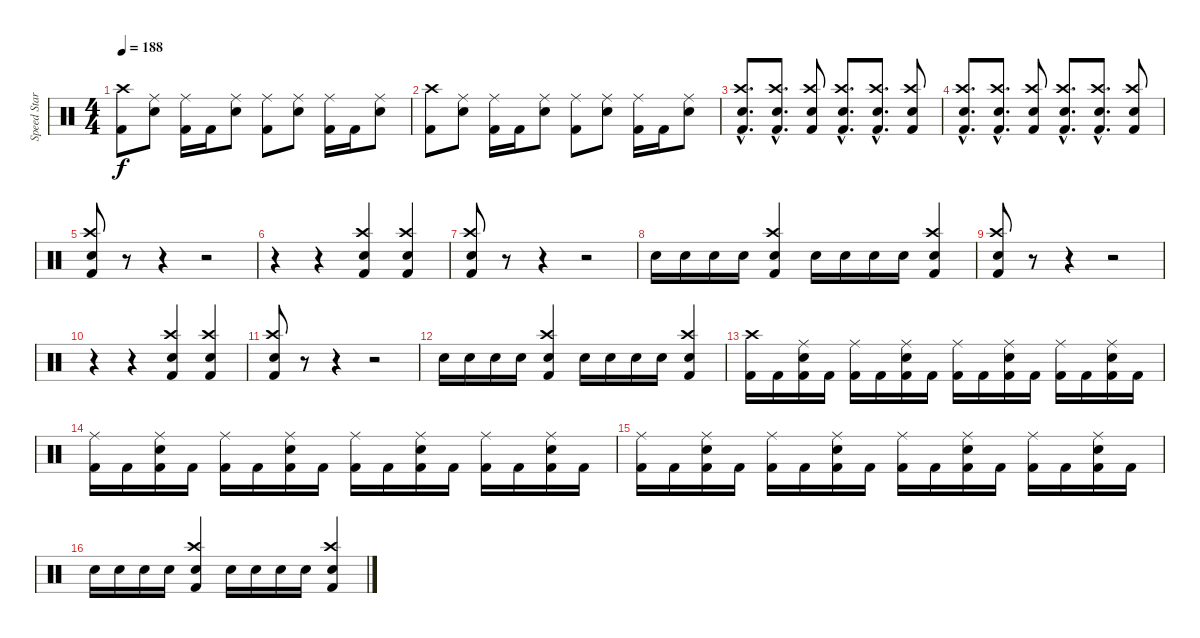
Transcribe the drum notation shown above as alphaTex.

\track ("Speed Star Sypan Joe" "Speed Star") {instrument percussion}
\staff {score}
\articulation defaults
\ts (4 4)
\tempo 188
\clef neutral
\ks c
("Kick (hit) 2" "Crash high (hit)").8{dy f} ("Electric Snare (hit)" "Ride (middle)").8 ("Kick (hit) 2" "Ride (middle)").16 "Kick (hit) 2".16 ("Electric Snare (hit)" "Ride (middle)").8 ("Kick (hit) 2" "Ride (middle)").8 ("Electric Snare (hit)" "Ride (middle)").8 ("Kick (hit) 2" "Ride (middle)").16 "Kick (hit) 2".16 ("Electric Snare (hit)" "Ride (middle)").8 |
("Kick (hit) 2" "Crash high (hit)").8 ("Electric Snare (hit)" "Ride (middle)").8 ("Kick (hit) 2" "Ride (middle)").16 "Kick (hit) 2".16 ("Electric Snare (hit)" "Ride (middle)").8 ("Kick (hit) 2" "Ride (middle)").8 ("Electric Snare (hit)" "Ride (middle)").8 ("Kick (hit) 2" "Ride (middle)").16 "Kick (hit) 2".16 ("Electric Snare (hit)" "Ride (middle)").8 |
("Kick (hit) 2"{hac} "Electric Snare (hit)"{hac} "Crash high (hit)"{hac}).8{d} ("Kick (hit) 2"{hac} "Electric Snare (hit)"{hac} "Crash high (hit)"{hac}).8{d} ("Kick (hit) 2" "Electric Snare (hit)" "Crash high (hit)").8 ("Kick (hit) 2"{hac} "Electric Snare (hit)"{hac} "Crash high (hit)"{hac}).8{d} ("Kick (hit) 2"{hac} "Electric Snare (hit)"{hac} "Crash high (hit)"{hac}).8{d} ("Kick (hit) 2" "Electric Snare (hit)" "Crash high (hit)").8 |
("Kick (hit) 2"{hac} "Electric Snare (hit)"{hac} "Crash high (hit)"{hac}).8{d} ("Kick (hit) 2"{hac} "Electric Snare (hit)"{hac} "Crash high (hit)"{hac}).8{d} ("Kick (hit) 2" "Electric Snare (hit)" "Crash high (hit)").8 ("Kick (hit) 2"{hac} "Electric Snare (hit)"{hac} "Crash high (hit)"{hac}).8{d} ("Kick (hit) 2"{hac} "Electric Snare (hit)"{hac} "Crash high (hit)"{hac}).8{d} ("Kick (hit) 2" "Electric Snare (hit)" "Crash high (hit)").8 |
("Electric Snare (hit)" "Kick (hit) 2" "Crash high (hit)").8 r.8 r.4 r.2 |
r.4 r.4 ("Kick (hit) 2" "Electric Snare (hit)" "Crash high (hit)").4 ("Electric Snare (hit)" "Kick (hit) 2" "Crash high (hit)").4 |
("Electric Snare (hit)" "Kick (hit) 2" "Crash high (hit)").8 r.8 r.4 r.2 |
"Electric Snare (hit)".16 "Electric Snare (hit)".16 "Electric Snare (hit)".16 "Electric Snare (hit)".16 ("Electric Snare (hit)" "Kick (hit) 2" "Crash high (hit)").4 "Electric Snare (hit)".16 "Electric Snare (hit)".16 "Electric Snare (hit)".16 "Electric Snare (hit)".16 ("Electric Snare (hit)" "Kick (hit) 2" "Crash high (hit)").4 |
("Electric Snare (hit)" "Kick (hit) 2" "Crash high (hit)").8 r.8 r.4 r.2 |
r.4 r.4 ("Kick (hit) 2" "Electric Snare (hit)" "Crash high (hit)").4 ("Electric Snare (hit)" "Kick (hit) 2" "Crash high (hit)").4 |
("Electric Snare (hit)" "Kick (hit) 2" "Crash high (hit)").8 r.8 r.4 r.2 |
"Electric Snare (hit)".16 "Electric Snare (hit)".16 "Electric Snare (hit)".16 "Electric Snare (hit)".16 ("Electric Snare (hit)" "Kick (hit) 2" "Crash high (hit)").4 "Electric Snare (hit)".16 "Electric Snare (hit)".16 "Electric Snare (hit)".16 "Electric Snare (hit)".16 ("Electric Snare (hit)" "Kick (hit) 2" "Crash high (hit)").4 |
("Kick (hit) 2" "Crash high (hit)").16 "Kick (hit) 2".16 ("Kick (hit) 2" "Electric Snare (hit)" "Ride (middle)").16 "Kick (hit) 2".16 ("Kick (hit) 2" "Ride (middle)").16 "Kick (hit) 2".16 ("Kick (hit) 2" "Electric Snare (hit)" "Ride (middle)").16 "Kick (hit) 2".16 ("Kick (hit) 2" "Ride (middle)").16 "Kick (hit) 2".16 ("Kick (hit) 2" "Electric Snare (hit)" "Ride (middle)").16 "Kick (hit) 2".16 ("Kick (hit) 2" "Ride (middle)").16 "Kick (hit) 2".16 ("Kick (hit) 2" "Electric Snare (hit)" "Ride (middle)").16 "Kick (hit) 2".16 |
("Kick (hit) 2" "Ride (middle)").16 "Kick (hit) 2".16 ("Kick (hit) 2" "Electric Snare (hit)" "Ride (middle)").16 "Kick (hit) 2".16 ("Kick (hit) 2" "Ride (middle)").16 "Kick (hit) 2".16 ("Kick (hit) 2" "Electric Snare (hit)" "Ride (middle)").16 "Kick (hit) 2".16 ("Kick (hit) 2" "Ride (middle)").16 "Kick (hit) 2".16 ("Kick (hit) 2" "Electric Snare (hit)" "Ride (middle)").16 "Kick (hit) 2".16 ("Kick (hit) 2" "Ride (middle)").16 "Kick (hit) 2".16 ("Kick (hit) 2" "Electric Snare (hit)" "Ride (middle)").16 "Kick (hit) 2".16 |
("Kick (hit) 2" "Ride (middle)").16 "Kick (hit) 2".16 ("Kick (hit) 2" "Electric Snare (hit)" "Ride (middle)").16 "Kick (hit) 2".16 ("Kick (hit) 2" "Ride (middle)").16 "Kick (hit) 2".16 ("Kick (hit) 2" "Electric Snare (hit)" "Ride (middle)").16 "Kick (hit) 2".16 ("Kick (hit) 2" "Ride (middle)").16 "Kick (hit) 2".16 ("Kick (hit) 2" "Electric Snare (hit)" "Ride (middle)").16 "Kick (hit) 2".16 ("Kick (hit) 2" "Ride (middle)").16 "Kick (hit) 2".16 ("Kick (hit) 2" "Electric Snare (hit)" "Ride (middle)").16 "Kick (hit) 2".16 |
"Electric Snare (hit)".16 "Electric Snare (hit)".16 "Electric Snare (hit)".16 "Electric Snare (hit)".16 ("Electric Snare (hit)" "Kick (hit) 2" "Crash high (hit)").4 "Electric Snare (hit)".16 "Electric Snare (hit)".16 "Electric Snare (hit)".16 "Electric Snare (hit)".16 ("Electric Snare (hit)" "Kick (hit) 2" "Crash high (hit)").4
